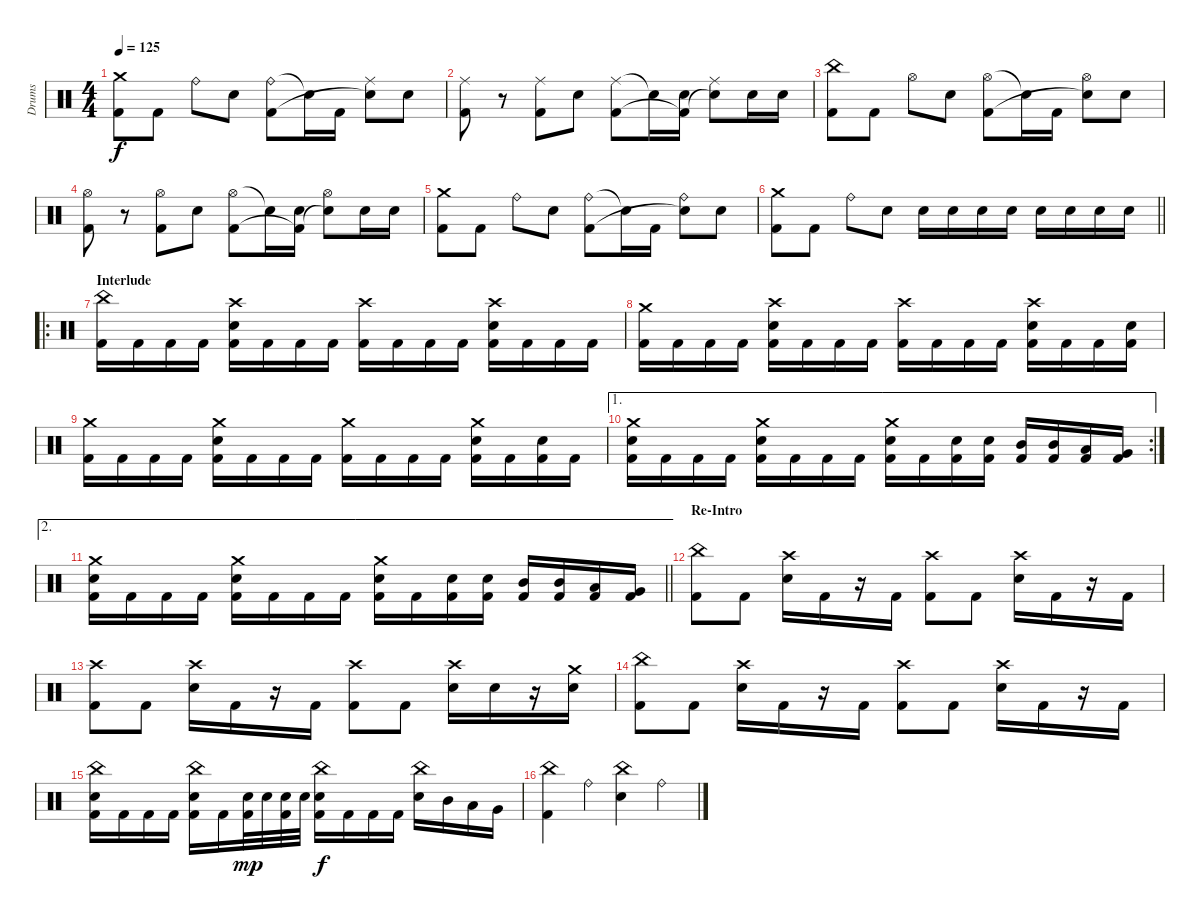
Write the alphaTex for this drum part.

\track ("Drums" "Drums") {instrument percussion}
\staff {score}
\articulation defaults
\ts (4 4)
\tempo 125
\clef neutral
\ks c
("Crash medium (hit)" "Kick (hit) 2").8{dy f} "Kick (hit) 2".8 "Ride (bell)".8 "Electric Snare (hit)".8 ("Ride (bell)" "Kick (hit) 2").8 "Snare (hit)"{t}.16 "Kick (hit) 2".16 ("Ride (middle)" "Snare (hit)"{t}).8 "Electric Snare (hit)".8 |
("Ride (middle)" "Kick (hit) 2").8 r.8 ("Ride (middle)" "Kick (hit) 2").8 "Electric Snare (hit)".8 ("Ride (middle)" "Kick (hit) 2").8 "Snare (hit)"{t}.16 ("Electric Snare (hit)" "Kick (hit) 2"{t}).16 ("Ride (middle)" "Snare (hit)"{t}).8 "Electric Snare (hit)".16 "Electric Snare (hit)".16 |
("China (hit)" "Kick (hit) 2").8 "Kick (hit) 2".8 "Hi-Hat (open)".8 "Electric Snare (hit)".8 ("Hi-Hat (open)" "Kick (hit) 2").8 "Snare (hit)"{t}.16 "Kick (hit) 2".16 ("Hi-Hat (open)" "Snare (hit)"{t}).8 "Electric Snare (hit)".8 |
("Hi-Hat (open)" "Kick (hit) 2").8 r.8 ("Hi-Hat (open)" "Kick (hit) 2").8 "Electric Snare (hit)".8 ("Hi-Hat (open)" "Kick (hit) 2").8 "Snare (hit)"{t}.16 ("Electric Snare (hit)" "Kick (hit) 2"{t}).16 ("Hi-Hat (open)" "Snare (hit)"{t}).8 "Electric Snare (hit)".16 "Electric Snare (hit)".16 |
("Crash medium (hit)" "Kick (hit) 2").8 "Kick (hit) 2".8 "Ride (bell)".8 "Electric Snare (hit)".8 ("Ride (bell)" "Kick (hit) 2").8 "Snare (hit)"{t}.16 "Kick (hit) 2".16 ("Ride (bell)" "Snare (hit)"{t}).8 "Electric Snare (hit)".8 |
\barLineRight lightlight
("Crash medium (hit)" "Kick (hit) 2").8 "Kick (hit) 2".8 "Ride (bell)".8 "Electric Snare (hit)".8 "Electric Snare (hit)".16 "Electric Snare (hit)".16 "Electric Snare (hit)".16 "Electric Snare (hit)".16 "Electric Snare (hit)".16 "Electric Snare (hit)".16 "Electric Snare (hit)".16 "Electric Snare (hit)".16 |
\ro
\section ("" "Interlude")
("China (hit)" "Kick (hit) 2").16 "Kick (hit) 2".16 "Kick (hit) 2".16 "Kick (hit) 2".16 ("Crash high (hit)" "Electric Snare (hit)" "Kick (hit) 2").16 "Kick (hit) 2".16 "Kick (hit) 2".16 "Kick (hit) 2".16 ("Crash high (hit)" "Kick (hit) 2").16 "Kick (hit) 2".16 "Kick (hit) 2".16 "Kick (hit) 2".16 ("Crash high (hit)" "Electric Snare (hit)" "Kick (hit) 2").16 "Kick (hit) 2".16 "Kick (hit) 2".16 "Kick (hit) 2".16 |
("Crash medium (hit)" "Kick (hit) 2").16 "Kick (hit) 2".16 "Kick (hit) 2".16 "Kick (hit) 2".16 ("Crash high (hit)" "Electric Snare (hit)" "Kick (hit) 2").16 "Kick (hit) 2".16 "Kick (hit) 2".16 "Kick (hit) 2".16 ("Crash high (hit)" "Kick (hit) 2").16 "Kick (hit) 2".16 "Kick (hit) 2".16 "Kick (hit) 2".16 ("Crash high (hit)" "Electric Snare (hit)" "Kick (hit) 2").16 "Kick (hit) 2".16 "Kick (hit) 2".16 ("Electric Snare (hit)" "Kick (hit) 2").16 |
("Crash medium (hit)" "Kick (hit) 2").16 "Kick (hit) 2".16 "Kick (hit) 2".16 "Kick (hit) 2".16 ("Crash medium (hit)" "Electric Snare (hit)" "Kick (hit) 2").16 "Kick (hit) 2".16 "Kick (hit) 2".16 "Kick (hit) 2".16 ("Crash medium (hit)" "Kick (hit) 2").16 "Kick (hit) 2".16 "Kick (hit) 2".16 "Kick (hit) 2".16 ("Crash medium (hit)" "Electric Snare (hit)" "Kick (hit) 2").16 "Kick (hit) 2".16 ("Electric Snare (hit)" "Kick (hit) 2").16 "Kick (hit) 2".16 |
\ae 1
\rc 2
("Crash medium (hit)" "Electric Snare (hit)" "Kick (hit) 2").16 "Kick (hit) 2".16 "Kick (hit) 2".16 "Kick (hit) 2".16 ("Crash medium (hit)" "Electric Snare (hit)" "Kick (hit) 2").16 "Kick (hit) 2".16 "Kick (hit) 2".16 "Kick (hit) 2".16 ("Crash medium (hit)" "Electric Snare (hit)" "Kick (hit) 2").16 "Kick (hit) 2".16 ("Electric Snare (hit)" "Kick (hit) 2").16 ("Electric Snare (hit)" "Kick (hit) 2").16 ("Mid Tom (hit)" "Kick (hit) 2").16 ("Mid Tom (hit)" "Kick (hit) 2").16 ("Low Tom (hit)" "Kick (hit) 2").16 ("Very Low Tom (hit)" "Kick (hit) 2").16 |
\ae 2
\barLineRight lightlight
("Crash medium (hit)" "Electric Snare (hit)" "Kick (hit) 2").16 "Kick (hit) 2".16 "Kick (hit) 2".16 "Kick (hit) 2".16 ("Crash medium (hit)" "Electric Snare (hit)" "Kick (hit) 2").16 "Kick (hit) 2".16 "Kick (hit) 2".16 "Kick (hit) 2".16 ("Crash medium (hit)" "Electric Snare (hit)" "Kick (hit) 2").16 "Kick (hit) 2".16 ("Electric Snare (hit)" "Kick (hit) 2").16 ("Electric Snare (hit)" "Kick (hit) 2").16 ("Mid Tom (hit)" "Kick (hit) 2").16 ("Mid Tom (hit)" "Kick (hit) 2").16 ("Low Tom (hit)" "Kick (hit) 2").16 ("Very Low Tom (hit)" "Kick (hit) 2").16 |
\section ("" "Re-Intro")
("China (hit)" "Kick (hit) 2").8 "Kick (hit) 2".8 ("Crash high (hit)" "Electric Snare (hit)").16 "Kick (hit) 2".16 r.16 "Kick (hit) 2".16 ("Crash high (hit)" "Kick (hit) 2").8 "Kick (hit) 2".8 ("Crash high (hit)" "Electric Snare (hit)").16 "Kick (hit) 2".16 r.16 "Kick (hit) 2".16 |
("Crash high (hit)" "Kick (hit) 2").8 "Kick (hit) 2".8 ("Crash high (hit)" "Electric Snare (hit)").16 "Kick (hit) 2".16 r.16 "Kick (hit) 2".16 ("Crash high (hit)" "Kick (hit) 2").8 "Kick (hit) 2".8 ("Crash high (hit)" "Electric Snare (hit)").16 "Electric Snare (hit)".16 r.16 ("Crash medium (hit)" "Electric Snare (hit)").16 |
("China (hit)" "Kick (hit) 2").8 "Kick (hit) 2".8 ("Crash high (hit)" "Electric Snare (hit)").16 "Kick (hit) 2".16 r.16 "Kick (hit) 2".16 ("Crash high (hit)" "Kick (hit) 2").8 "Kick (hit) 2".8 ("Crash high (hit)" "Electric Snare (hit)").16 "Kick (hit) 2".16 r.16 "Kick (hit) 2".16 |
("China (hit)" "Electric Snare (hit)" "Kick (hit) 2").16 "Kick (hit) 2".16 "Kick (hit) 2".16 "Kick (hit) 2".16 ("China (hit)" "Electric Snare (hit)" "Kick (hit) 2").16 "Kick (hit) 2".16 ("Electric Snare (hit)" "Kick (hit) 2").32{dy mp} "Electric Snare (hit)".32 ("Electric Snare (hit)" "Kick (hit) 2").32 "Electric Snare (hit)".32 ("China (hit)" "Electric Snare (hit)" "Kick (hit) 2").16{dy f} "Kick (hit) 2".16 "Kick (hit) 2".16 "Kick (hit) 2".16 ("China (hit)" "Electric Snare (hit)").16 "Mid Tom (hit)".16 "Low Tom (hit)".16 "Very Low Tom (hit)".16 |
("China (hit)" "Kick (hit) 2").4 "Ride (bell)".4 ("China (hit)" "Electric Snare (hit)").4 "Ride (bell)".4
